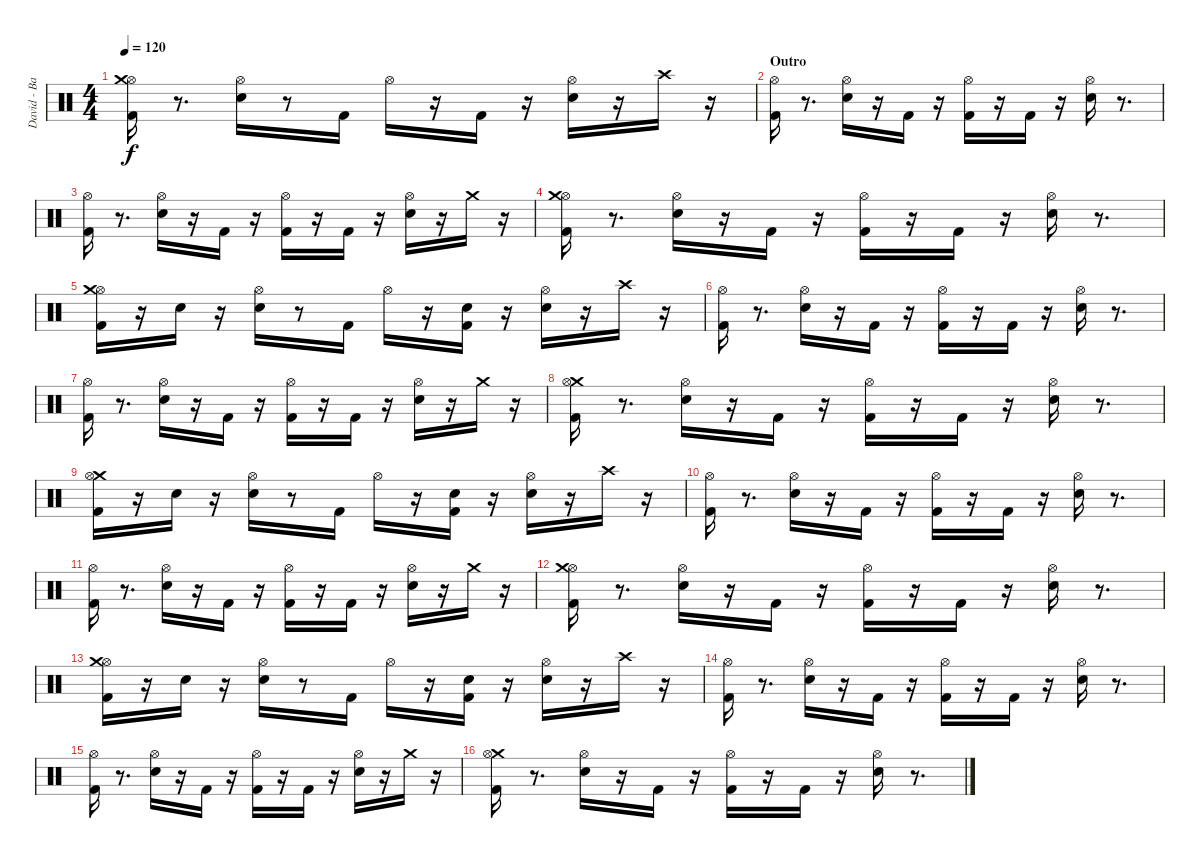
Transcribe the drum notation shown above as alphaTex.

\track ("David - Batterie" "David - Ba") {instrument percussion}
\staff {score}
\articulation defaults
\ts (4 4)
\tempo 120
\clef neutral
\ks c
("Hi-Hat (open)" "Kick (hit) 2" "Crash medium (hit)").16{dy f} r.8{d} ("Hi-Hat (open)" "Electric Snare (hit)").16 r.8 "Kick (hit) 2".16 "Hi-Hat (open)".16 r.16 "Kick (hit) 2".16 r.16 ("Hi-Hat (open)" "Electric Snare (hit)").16 r.16 "Crash high (hit)".16 r.16 |
\section ("" "Outro")
("Hi-Hat (open)" "Kick (hit) 2").16 r.8{d} ("Hi-Hat (open)" "Electric Snare (hit)").16 r.16 "Kick (hit) 2".16 r.16 ("Kick (hit) 2" "Hi-Hat (open)").16 r.16 "Kick (hit) 2".16 r.16 ("Hi-Hat (open)" "Electric Snare (hit)").16 r.8{d} |
("Kick (hit) 2" "Hi-Hat (open)").16 r.8{d} ("Electric Snare (hit)" "Hi-Hat (open)").16 r.16 "Kick (hit) 2".16 r.16 ("Hi-Hat (open)" "Kick (hit) 2").16 r.16 "Kick (hit) 2".16 r.16 ("Electric Snare (hit)" "Hi-Hat (open)").16 r.16 "Crash medium (hit)".16 r.16 |
("Kick (hit) 2" "Hi-Hat (open)" "Crash medium (hit)").16 r.8{d} ("Electric Snare (hit)" "Hi-Hat (open)").16 r.16 "Kick (hit) 2".16 r.16 ("Hi-Hat (open)" "Kick (hit) 2").16 r.16 "Kick (hit) 2".16 r.16 ("Electric Snare (hit)" "Hi-Hat (open)").16 r.8{d} |
("Hi-Hat (open)" "Crash medium (hit)" "Kick (hit) 2").16 r.16 "Electric Snare (hit)".16 r.16 ("Hi-Hat (open)" "Electric Snare (hit)").16 r.8 "Kick (hit) 2".16 "Hi-Hat (open)".16 r.16 ("Electric Snare (hit)" "Kick (hit) 2").16 r.16 ("Hi-Hat (open)" "Electric Snare (hit)").16 r.16 "Crash high (hit)".16 r.16 |
("Kick (hit) 2" "Hi-Hat (open)").16 r.8{d} ("Electric Snare (hit)" "Hi-Hat (open)").16 r.16 "Kick (hit) 2".16 r.16 ("Hi-Hat (open)" "Kick (hit) 2").16 r.16 "Kick (hit) 2".16 r.16 ("Electric Snare (hit)" "Hi-Hat (open)").16 r.8{d} |
("Hi-Hat (open)" "Kick (hit) 2").16 r.8{d} ("Hi-Hat (open)" "Electric Snare (hit)").16 r.16 "Kick (hit) 2".16 r.16 ("Kick (hit) 2" "Hi-Hat (open)").16 r.16 "Kick (hit) 2".16 r.16 ("Hi-Hat (open)" "Electric Snare (hit)").16 r.16 "Crash medium (hit)".16 r.16 |
("Crash medium (hit)" "Hi-Hat (open)" "Kick (hit) 2").16 r.8{d} ("Hi-Hat (open)" "Electric Snare (hit)").16 r.16 "Kick (hit) 2".16 r.16 ("Kick (hit) 2" "Hi-Hat (open)").16 r.16 "Kick (hit) 2".16 r.16 ("Hi-Hat (open)" "Electric Snare (hit)").16 r.8{d} |
("Kick (hit) 2" "Crash medium (hit)" "Hi-Hat (open)").16 r.16 "Electric Snare (hit)".16 r.16 ("Electric Snare (hit)" "Hi-Hat (open)").16 r.8 "Kick (hit) 2".16 "Hi-Hat (open)".16 r.16 ("Kick (hit) 2" "Electric Snare (hit)").16 r.16 ("Electric Snare (hit)" "Hi-Hat (open)").16 r.16 "Crash high (hit)".16 r.16 |
("Hi-Hat (open)" "Kick (hit) 2").16 r.8{d} ("Hi-Hat (open)" "Electric Snare (hit)").16 r.16 "Kick (hit) 2".16 r.16 ("Kick (hit) 2" "Hi-Hat (open)").16 r.16 "Kick (hit) 2".16 r.16 ("Hi-Hat (open)" "Electric Snare (hit)").16 r.8{d} |
("Kick (hit) 2" "Hi-Hat (open)").16 r.8{d} ("Electric Snare (hit)" "Hi-Hat (open)").16 r.16 "Kick (hit) 2".16 r.16 ("Hi-Hat (open)" "Kick (hit) 2").16 r.16 "Kick (hit) 2".16 r.16 ("Electric Snare (hit)" "Hi-Hat (open)").16 r.16 "Crash medium (hit)".16 r.16 |
("Kick (hit) 2" "Hi-Hat (open)" "Crash medium (hit)").16{volume 12} r.8{d} ("Electric Snare (hit)" "Hi-Hat (open)").16{volume 11} r.16 "Kick (hit) 2".16 r.16 ("Hi-Hat (open)" "Kick (hit) 2").16{volume 11} r.16 "Kick (hit) 2".16 r.16 ("Electric Snare (hit)" "Hi-Hat (open)").16 r.8{d} |
("Hi-Hat (open)" "Crash medium (hit)" "Kick (hit) 2").16{volume 10} r.16 "Electric Snare (hit)".16 r.16 ("Hi-Hat (open)" "Electric Snare (hit)").16{volume 10} r.8 "Kick (hit) 2".16{volume 9} "Hi-Hat (open)".16 r.16 ("Electric Snare (hit)" "Kick (hit) 2").16 r.16 ("Hi-Hat (open)" "Electric Snare (hit)").16 r.16 "Crash high (hit)".16 r.16 |
("Kick (hit) 2" "Hi-Hat (open)").16{volume 8} r.8{d} ("Electric Snare (hit)" "Hi-Hat (open)").16{volume 8} r.16 "Kick (hit) 2".16 r.16 ("Hi-Hat (open)" "Kick (hit) 2").16{volume 8} r.16 "Kick (hit) 2".16 r.16 ("Electric Snare (hit)" "Hi-Hat (open)").16 r.8{d} |
("Hi-Hat (open)" "Kick (hit) 2").16{volume 6} r.8{d} ("Hi-Hat (open)" "Electric Snare (hit)").16{volume 6} r.16 "Kick (hit) 2".16 r.16 ("Kick (hit) 2" "Hi-Hat (open)").16{volume 6} r.16 "Kick (hit) 2".16 r.16 ("Hi-Hat (open)" "Electric Snare (hit)").16 r.16 "Crash medium (hit)".16 r.16 |
("Crash medium (hit)" "Hi-Hat (open)" "Kick (hit) 2").16{volume 5} r.8{d} ("Hi-Hat (open)" "Electric Snare (hit)").16{volume 4} r.16 "Kick (hit) 2".16 r.16 ("Kick (hit) 2" "Hi-Hat (open)").16{volume 4} r.16 "Kick (hit) 2".16 r.16 ("Hi-Hat (open)" "Electric Snare (hit)").16 r.8{d}
